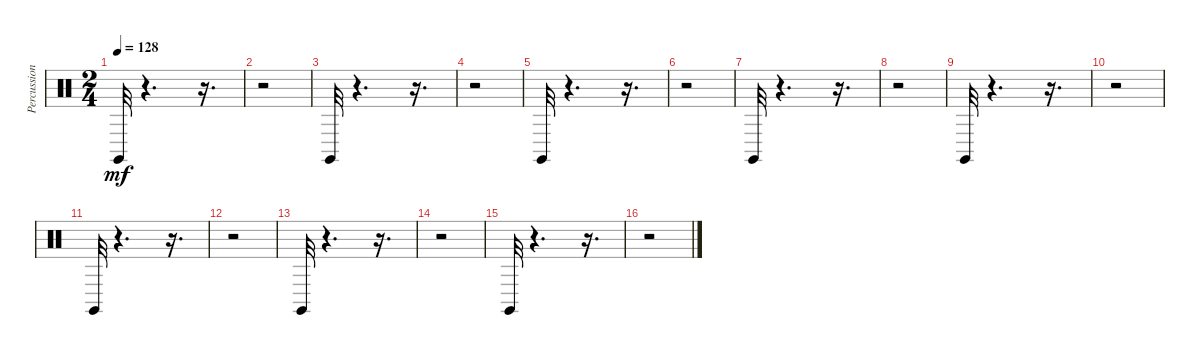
\track ("Percussion" "Percussion") {instrument percussion}
\staff {score}
\articulation defaults
\ts (2 4)
\tempo 128
\clef neutral
\ks c "Claves (hit)".32{dy mf}
r.4{d} r.16{d} |
r.2 |
"Claves (hit)".32 r.4{d} r.16{d} |
r.2 |
"Claves (hit)".32 r.4{d} r.16{d} |
r.2 |
"Claves (hit)".32 r.4{d} r.16{d} |
r.2 |
"Claves (hit)".32 r.4{d} r.16{d} |
r.2 |
"Claves (hit)".32 r.4{d} r.16{d} |
r.2 |
"Claves (hit)".32 r.4{d} r.16{d} |
r.2 |
"Claves (hit)".32 r.4{d} r.16{d} |
r.2
